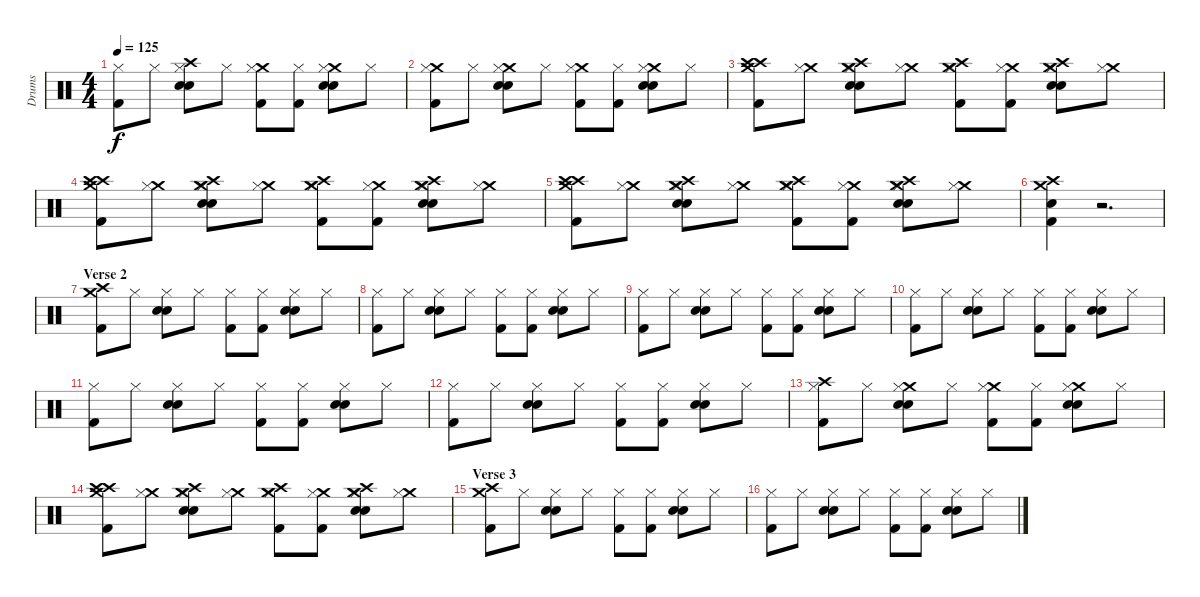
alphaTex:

\track ("Drums" "Drums") {instrument percussion}
\staff {score}
\articulation defaults
\ts (4 4)
\tempo 125
\clef neutral
\ks c
("Hi-Hat (closed)" "Kick (hit) 2").8{dy f} "Hi-Hat (closed)".8 ("Crash high (hit)" "Hi-Hat (closed)" "Snare (hit) 2" "Snare (hit) 2").8 "Hi-Hat (closed)".8 ("Crash medium (hit)" "Hi-Hat (closed)" "Kick (hit) 2").8 ("Hi-Hat (closed)" "Kick (hit) 2").8 ("Crash medium (hit)" "Hi-Hat (closed)" "Snare (hit) 2" "Snare (hit) 2").8 "Hi-Hat (closed)".8 |
("Crash medium (hit)" "Hi-Hat (closed)" "Kick (hit) 2").8 "Hi-Hat (closed)".8 ("Crash medium (hit)" "Hi-Hat (closed)" "Snare (hit) 2" "Snare (hit) 2").8 "Hi-Hat (closed)".8 ("Crash medium (hit)" "Hi-Hat (closed)" "Kick (hit) 2").8 ("Hi-Hat (closed)" "Kick (hit) 2").8 ("Crash medium (hit)" "Hi-Hat (closed)" "Snare (hit) 2" "Snare (hit) 2").8 "Hi-Hat (closed)".8 |
("Crash high (hit)" "Crash medium (hit)" "Crash high (hit)" "Kick (hit) 2").8 ("Crash medium (hit)" "Hi-Hat (closed)").8 ("Crash high (hit)" "Crash medium (hit)" "Hi-Hat (closed)" "Snare (hit) 2" "Snare (hit) 2").8 ("Crash medium (hit)" "Hi-Hat (closed)").8 ("Crash high (hit)" "Crash medium (hit)" "Hi-Hat (closed)" "Kick (hit) 2").8 ("Crash medium (hit)" "Hi-Hat (closed)" "Kick (hit) 2").8 ("Crash high (hit)" "Crash medium (hit)" "Hi-Hat (closed)" "Snare (hit) 2" "Snare (hit) 2").8 ("Crash medium (hit)" "Hi-Hat (closed)").8 |
("Crash high (hit)" "Crash medium (hit)" "Crash high (hit)" "Kick (hit) 2").8 ("Crash medium (hit)" "Hi-Hat (closed)").8 ("Crash high (hit)" "Crash medium (hit)" "Hi-Hat (closed)" "Snare (hit) 2" "Snare (hit) 2").8 ("Crash medium (hit)" "Hi-Hat (closed)").8 ("Crash high (hit)" "Crash medium (hit)" "Hi-Hat (closed)" "Kick (hit) 2").8 ("Crash medium (hit)" "Hi-Hat (closed)" "Kick (hit) 2").8 ("Crash high (hit)" "Crash medium (hit)" "Hi-Hat (closed)" "Snare (hit) 2" "Snare (hit) 2").8 ("Crash medium (hit)" "Hi-Hat (closed)").8 |
("Crash high (hit)" "Crash medium (hit)" "Crash high (hit)" "Kick (hit) 2").8 ("Crash medium (hit)" "Hi-Hat (closed)").8 ("Crash high (hit)" "Crash medium (hit)" "Hi-Hat (closed)" "Snare (hit) 2" "Snare (hit) 2").8 ("Crash medium (hit)" "Hi-Hat (closed)").8 ("Crash high (hit)" "Crash medium (hit)" "Hi-Hat (closed)" "Kick (hit) 2").8 ("Crash medium (hit)" "Hi-Hat (closed)" "Kick (hit) 2").8 ("Crash high (hit)" "Crash medium (hit)" "Hi-Hat (closed)" "Snare (hit) 2" "Snare (hit) 2").8 ("Crash medium (hit)" "Hi-Hat (closed)").8 |
("Crash medium (hit)" "Crash high (hit)" "Snare (hit) 2" "Kick (hit) 2").4 r.2{d} |
\section ("" "Verse 2")
("Crash medium (hit)" "Crash high (hit)" "Kick (hit) 2").8 "Hi-Hat (closed)".8 ("Hi-Hat (closed)" "Snare (hit) 2" "Snare (hit) 2").8 "Hi-Hat (closed)".8 ("Hi-Hat (closed)" "Kick (hit) 2").8 ("Hi-Hat (closed)" "Kick (hit) 2").8 ("Hi-Hat (closed)" "Snare (hit) 2" "Snare (hit) 2").8 "Hi-Hat (closed)".8 |
("Hi-Hat (closed)" "Kick (hit) 2").8 "Hi-Hat (closed)".8 ("Hi-Hat (closed)" "Snare (hit) 2" "Snare (hit) 2").8 "Hi-Hat (closed)".8 ("Hi-Hat (closed)" "Kick (hit) 2").8 ("Hi-Hat (closed)" "Kick (hit) 2").8 ("Hi-Hat (closed)" "Snare (hit) 2" "Snare (hit) 2").8 "Hi-Hat (closed)".8 |
("Hi-Hat (closed)" "Kick (hit) 2").8 "Hi-Hat (closed)".8 ("Hi-Hat (closed)" "Snare (hit) 2" "Snare (hit) 2").8 "Hi-Hat (closed)".8 ("Hi-Hat (closed)" "Kick (hit) 2").8 ("Hi-Hat (closed)" "Kick (hit) 2").8 ("Hi-Hat (closed)" "Snare (hit) 2" "Snare (hit) 2").8 "Hi-Hat (closed)".8 |
("Hi-Hat (closed)" "Kick (hit) 2").8 "Hi-Hat (closed)".8 ("Hi-Hat (closed)" "Snare (hit) 2" "Snare (hit) 2").8 "Hi-Hat (closed)".8 ("Hi-Hat (closed)" "Kick (hit) 2").8 ("Hi-Hat (closed)" "Kick (hit) 2").8 ("Hi-Hat (closed)" "Snare (hit) 2" "Snare (hit) 2").8 "Hi-Hat (closed)".8 |
("Hi-Hat (closed)" "Kick (hit) 2").8 "Hi-Hat (closed)".8 ("Hi-Hat (closed)" "Snare (hit) 2" "Snare (hit) 2").8 "Hi-Hat (closed)".8 ("Hi-Hat (closed)" "Kick (hit) 2").8 ("Hi-Hat (closed)" "Kick (hit) 2").8 ("Hi-Hat (closed)" "Snare (hit) 2" "Snare (hit) 2").8 "Hi-Hat (closed)".8 |
("Hi-Hat (closed)" "Kick (hit) 2").8 "Hi-Hat (closed)".8 ("Hi-Hat (closed)" "Snare (hit) 2" "Snare (hit) 2").8 "Hi-Hat (closed)".8 ("Hi-Hat (closed)" "Kick (hit) 2").8 ("Hi-Hat (closed)" "Kick (hit) 2").8 ("Hi-Hat (closed)" "Snare (hit) 2" "Snare (hit) 2").8 "Hi-Hat (closed)".8 |
("Crash high (hit)" "Hi-Hat (closed)" "Kick (hit) 2").8 "Hi-Hat (closed)".8 ("Crash medium (hit)" "Hi-Hat (closed)" "Snare (hit) 2" "Snare (hit) 2").8 "Hi-Hat (closed)".8 ("Crash medium (hit)" "Hi-Hat (closed)" "Kick (hit) 2").8 ("Hi-Hat (closed)" "Kick (hit) 2").8 ("Crash medium (hit)" "Hi-Hat (closed)" "Snare (hit) 2" "Snare (hit) 2").8 "Hi-Hat (closed)".8 |
("Crash high (hit)" "Crash medium (hit)" "Crash high (hit)" "Kick (hit) 2").8 ("Crash medium (hit)" "Hi-Hat (closed)").8 ("Crash high (hit)" "Crash medium (hit)" "Hi-Hat (closed)" "Snare (hit) 2" "Snare (hit) 2").8 ("Crash medium (hit)" "Hi-Hat (closed)").8 ("Crash high (hit)" "Crash medium (hit)" "Hi-Hat (closed)" "Kick (hit) 2").8 ("Crash medium (hit)" "Hi-Hat (closed)" "Kick (hit) 2").8 ("Crash high (hit)" "Crash medium (hit)" "Hi-Hat (closed)" "Snare (hit) 2" "Snare (hit) 2").8 ("Crash medium (hit)" "Hi-Hat (closed)").8 |
\section ("" "Verse 3")
("Crash medium (hit)" "Crash high (hit)" "Kick (hit) 2").8 "Hi-Hat (closed)".8 ("Hi-Hat (closed)" "Snare (hit) 2" "Snare (hit) 2").8 "Hi-Hat (closed)".8 ("Hi-Hat (closed)" "Kick (hit) 2").8 ("Hi-Hat (closed)" "Kick (hit) 2").8 ("Hi-Hat (closed)" "Snare (hit) 2" "Snare (hit) 2").8 "Hi-Hat (closed)".8 |
("Hi-Hat (closed)" "Kick (hit) 2").8 "Hi-Hat (closed)".8 ("Hi-Hat (closed)" "Snare (hit) 2" "Snare (hit) 2").8 "Hi-Hat (closed)".8 ("Hi-Hat (closed)" "Kick (hit) 2").8 ("Hi-Hat (closed)" "Kick (hit) 2").8 ("Hi-Hat (closed)" "Snare (hit) 2" "Snare (hit) 2").8 "Hi-Hat (closed)".8
